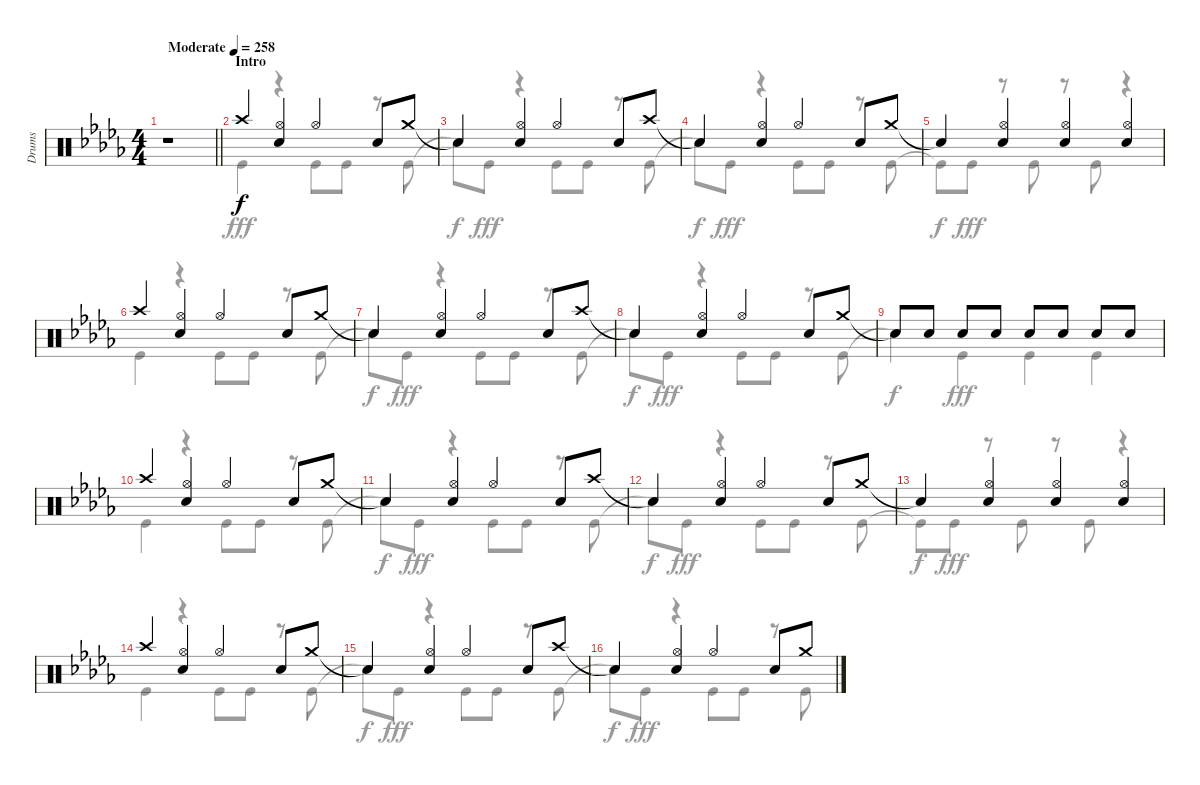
\track ("Drums" "Drums") {instrument percussion}
\staff {score}
\articulation defaults
\voice
\ts (4 4)
\tempo (258 "Moderate")
\clef neutral
\barLineRight lightlight
\ks db
r.1{dy f} |
\section ("" "Intro")
"Crash high (hit)".4 ("Hi-Hat (open)" "Snare (hit) 2").4 "Hi-Hat (open)".4 "Snare (hit) 2".8 "Crash medium (hit)".8 |
"Snare (hit)"{t}.4 ("Hi-Hat (open)" "Snare (hit) 2").4 "Hi-Hat (open)".4 "Snare (hit) 2".8 "Crash high (hit)".8 |
"Snare (hit)"{t}.4 ("Hi-Hat (open)" "Snare (hit) 2").4 "Hi-Hat (open)".4 "Snare (hit) 2".8 "Crash medium (hit)".8 |
"Snare (hit)"{t}.4 ("Hi-Hat (open)" "Snare (hit) 2").4 ("Hi-Hat (open)" "Snare (hit) 2").4 ("Hi-Hat (open)" "Snare (hit) 2").4 |
"Crash high (hit)".4 ("Hi-Hat (open)" "Snare (hit) 2").4 "Hi-Hat (open)".4 "Snare (hit) 2".8 "Crash medium (hit)".8 |
"Snare (hit)"{t}.4 ("Hi-Hat (open)" "Snare (hit) 2").4 "Hi-Hat (open)".4 "Snare (hit) 2".8 "Crash high (hit)".8 |
"Snare (hit)"{t}.4 ("Hi-Hat (open)" "Snare (hit) 2").4 "Hi-Hat (open)".4 "Snare (hit) 2".8 "Crash medium (hit)".8 |
"Snare (hit)"{t}.8 "Snare (hit) 2".8 "Snare (hit) 2".8 "Snare (hit) 2".8 "Snare (hit) 2".8 "Snare (hit) 2".8 "Snare (hit) 2".8 "Snare (hit) 2".8 |
"Crash high (hit)".4 ("Hi-Hat (open)" "Snare (hit) 2").4 "Hi-Hat (open)".4 "Snare (hit) 2".8 "Crash medium (hit)".8 |
"Snare (hit)"{t}.4 ("Hi-Hat (open)" "Snare (hit) 2").4 "Hi-Hat (open)".4 "Snare (hit) 2".8 "Crash high (hit)".8 |
"Snare (hit)"{t}.4 ("Hi-Hat (open)" "Snare (hit) 2").4 "Hi-Hat (open)".4 "Snare (hit) 2".8 "Crash medium (hit)".8 |
"Snare (hit)"{t}.4 ("Hi-Hat (open)" "Snare (hit) 2").4 ("Hi-Hat (open)" "Snare (hit) 2").4 ("Hi-Hat (open)" "Snare (hit) 2").4 |
"Crash high (hit)".4 ("Hi-Hat (open)" "Snare (hit) 2").4 "Hi-Hat (open)".4 "Snare (hit) 2".8 "Crash medium (hit)".8 |
"Snare (hit)"{t}.4 ("Hi-Hat (open)" "Snare (hit) 2").4 "Hi-Hat (open)".4 "Snare (hit) 2".8 "Crash high (hit)".8 |
"Snare (hit)"{t}.4 ("Hi-Hat (open)" "Snare (hit) 2").4 "Hi-Hat (open)".4 "Snare (hit) 2".8 "Crash medium (hit)".8
\voice
\clef neutral
\ottava regular
\simile none
\barLineRight lightlight
\ks db
r.1{dy fff} |
"Kick (hit)".4 r.4 "Kick (hit)".8 "Kick (hit)".8 r.8 "Kick (hit)".8 |
"Snare (hit)"{t}.8{dy f} "Kick (hit)".8{dy fff} r.4 "Kick (hit)".8 "Kick (hit)".8 r.8 "Kick (hit)".8 |
"Snare (hit)"{t}.8{dy f} "Kick (hit)".8{dy fff} r.4 "Kick (hit)".8 "Kick (hit)".8 r.8 "Kick (hit)".8 |
"Kick (hit)"{t}.8{dy f} "Kick (hit)".8{dy fff} r.8 "Kick (hit)".8 r.8 "Kick (hit)".8 r.4 |
"Kick (hit)".4 r.4 "Kick (hit)".8 "Kick (hit)".8 r.8 "Kick (hit)".8 |
"Snare (hit)"{t}.8{dy f} "Kick (hit)".8{dy fff} r.4 "Kick (hit)".8 "Kick (hit)".8 r.8 "Kick (hit)".8 |
"Snare (hit)"{t}.8{dy f} "Kick (hit)".8{dy fff} r.4 "Kick (hit)".8 "Kick (hit)".8 r.8 "Kick (hit)".8 |
"Snare (hit)"{t}.4{dy f} "Kick (hit)".4{dy fff} "Kick (hit)".4 "Kick (hit)".4 |
"Kick (hit)".4 r.4 "Kick (hit)".8 "Kick (hit)".8 r.8 "Kick (hit)".8 |
"Snare (hit)"{t}.8{dy f} "Kick (hit)".8{dy fff} r.4 "Kick (hit)".8 "Kick (hit)".8 r.8 "Kick (hit)".8 |
"Snare (hit)"{t}.8{dy f} "Kick (hit)".8{dy fff} r.4 "Kick (hit)".8 "Kick (hit)".8 r.8 "Kick (hit)".8 |
"Kick (hit)"{t}.8{dy f} "Kick (hit)".8{dy fff} r.8 "Kick (hit)".8 r.8 "Kick (hit)".8 r.4 |
"Kick (hit)".4 r.4 "Kick (hit)".8 "Kick (hit)".8 r.8 "Kick (hit)".8 |
"Snare (hit)"{t}.8{dy f} "Kick (hit)".8{dy fff} r.4 "Kick (hit)".8 "Kick (hit)".8 r.8 "Kick (hit)".8 |
"Snare (hit)"{t}.8{dy f} "Kick (hit)".8{dy fff} r.4 "Kick (hit)".8 "Kick (hit)".8 r.8 "Kick (hit)".8
